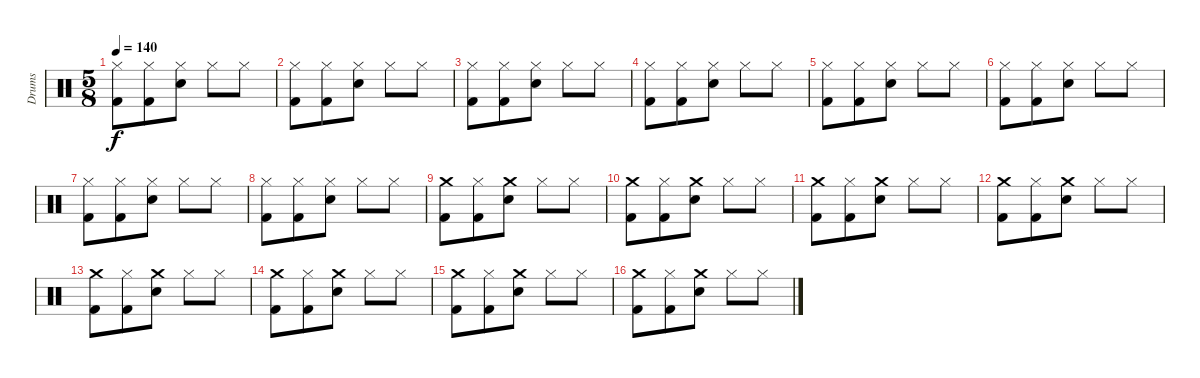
\track ("Drums" "Drums") {instrument percussion}
\staff {score}
\articulation defaults
\ts (5 8)
\tempo 140
\clef neutral
\ks c
("Hi-Hat (closed)" "Kick (hit) 2").8{dy f} ("Hi-Hat (closed)" "Kick (hit) 2").8 ("Hi-Hat (closed)" "Electric Snare (hit)").8 "Hi-Hat (closed)".8 "Hi-Hat (closed)".8 |
("Hi-Hat (closed)" "Kick (hit) 2").8 ("Hi-Hat (closed)" "Kick (hit) 2").8 ("Hi-Hat (closed)" "Electric Snare (hit)").8 "Hi-Hat (closed)".8 "Hi-Hat (closed)".8 |
("Hi-Hat (closed)" "Kick (hit) 2").8 ("Hi-Hat (closed)" "Kick (hit) 2").8 ("Hi-Hat (closed)" "Electric Snare (hit)").8 "Hi-Hat (closed)".8 "Hi-Hat (closed)".8 |
("Hi-Hat (closed)" "Kick (hit) 2").8 ("Hi-Hat (closed)" "Kick (hit) 2").8 ("Hi-Hat (closed)" "Electric Snare (hit)").8 "Hi-Hat (closed)".8 "Hi-Hat (closed)".8 |
("Hi-Hat (closed)" "Kick (hit) 2").8 ("Hi-Hat (closed)" "Kick (hit) 2").8 ("Hi-Hat (closed)" "Electric Snare (hit)").8 "Hi-Hat (closed)".8 "Hi-Hat (closed)".8 |
("Hi-Hat (closed)" "Kick (hit) 2").8 ("Hi-Hat (closed)" "Kick (hit) 2").8 ("Hi-Hat (closed)" "Electric Snare (hit)").8 "Hi-Hat (closed)".8 "Hi-Hat (closed)".8 |
("Hi-Hat (closed)" "Kick (hit) 2").8 ("Hi-Hat (closed)" "Kick (hit) 2").8 ("Hi-Hat (closed)" "Electric Snare (hit)").8 "Hi-Hat (closed)".8 "Hi-Hat (closed)".8 |
("Hi-Hat (closed)" "Kick (hit) 2").8 ("Hi-Hat (closed)" "Kick (hit) 2").8 ("Hi-Hat (closed)" "Electric Snare (hit)").8 "Hi-Hat (closed)".8 "Hi-Hat (closed)".8 |
("Crash medium (hit)" "Kick (hit) 2").8 ("Hi-Hat (closed)" "Kick (hit) 2").8 ("Crash medium (hit)" "Electric Snare (hit)").8 "Hi-Hat (closed)".8 "Hi-Hat (closed)".8 |
("Crash medium (hit)" "Kick (hit) 2").8 ("Hi-Hat (closed)" "Kick (hit) 2").8 ("Crash medium (hit)" "Electric Snare (hit)").8 "Hi-Hat (closed)".8 "Hi-Hat (closed)".8 |
("Crash medium (hit)" "Kick (hit) 2").8 ("Hi-Hat (closed)" "Kick (hit) 2").8 ("Crash medium (hit)" "Electric Snare (hit)").8 "Hi-Hat (closed)".8 "Hi-Hat (closed)".8 |
("Crash medium (hit)" "Kick (hit) 2").8 ("Hi-Hat (closed)" "Kick (hit) 2").8 ("Crash medium (hit)" "Electric Snare (hit)").8 "Hi-Hat (closed)".8 "Hi-Hat (closed)".8 |
("Crash medium (hit)" "Kick (hit) 2").8 ("Hi-Hat (closed)" "Kick (hit) 2").8 ("Crash medium (hit)" "Electric Snare (hit)").8 "Hi-Hat (closed)".8 "Hi-Hat (closed)".8 |
("Crash medium (hit)" "Kick (hit) 2").8 ("Hi-Hat (closed)" "Kick (hit) 2").8 ("Crash medium (hit)" "Electric Snare (hit)").8 "Hi-Hat (closed)".8 "Hi-Hat (closed)".8 |
("Crash medium (hit)" "Kick (hit) 2").8 ("Hi-Hat (closed)" "Kick (hit) 2").8 ("Crash medium (hit)" "Electric Snare (hit)").8 "Hi-Hat (closed)".8 "Hi-Hat (closed)".8 |
("Crash medium (hit)" "Kick (hit) 2").8 ("Hi-Hat (closed)" "Kick (hit) 2").8 ("Crash medium (hit)" "Electric Snare (hit)").8 "Hi-Hat (closed)".8 "Hi-Hat (closed)".8
